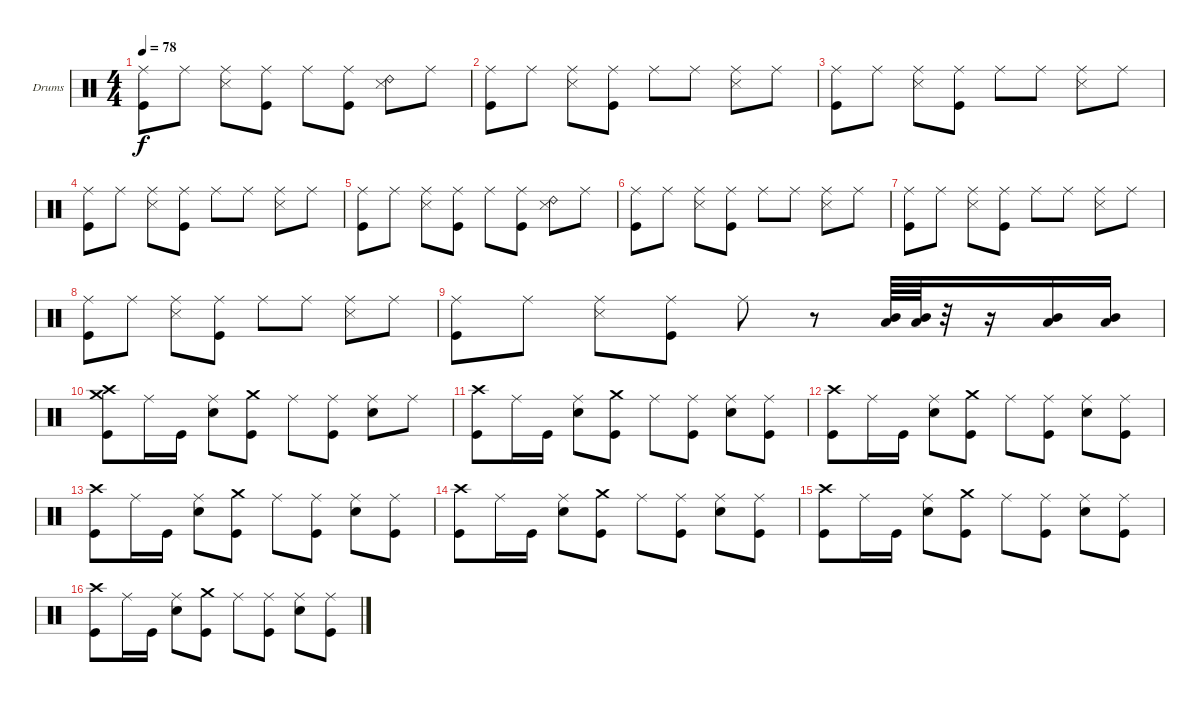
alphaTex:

\defaultSystemsLayout 4
\bracketExtendMode nobrackets
\firstSystemTrackNameOrientation horizontal
\otherSystemsTrackNameOrientation horizontal
\track ("Dave Krusen" "Drums") {instrument percussion}
\staff {score}
\articulation defaults
\ts (4 4)
\tempo 78
\clef neutral
\ks c
("Ride (middle)" "Kick (hit)").8{dy f} "Ride (middle)".8 ("Ride (middle)" "Snare (side stick) 3").8 ("Ride (middle)" "Kick (hit)").8 "Ride (middle)".8 ("Ride (middle)" "Kick (hit)").8 ("Ride (bell) 2" "Snare (side stick) 3").8 "Ride (middle)".8 |
("Ride (middle)" "Kick (hit)").8 "Ride (middle)".8 ("Ride (middle)" "Snare (side stick) 3").8 ("Ride (middle)" "Kick (hit)").8 "Ride (middle)".8 "Ride (middle)".8 ("Ride (middle)" "Snare (side stick) 3").8 "Ride (middle)".8 |
("Ride (middle)" "Kick (hit)").8 "Ride (middle)".8 ("Ride (middle)" "Snare (side stick) 3").8 ("Ride (middle)" "Kick (hit)").8 "Ride (middle)".8 "Ride (middle)".8 ("Ride (middle)" "Snare (side stick) 3").8 "Ride (middle)".8 |
("Ride (middle)" "Kick (hit)").8 "Ride (middle)".8 ("Ride (middle)" "Snare (side stick) 3").8 ("Ride (middle)" "Kick (hit)").8 "Ride (middle)".8 "Ride (middle)".8 ("Ride (middle)" "Snare (side stick) 3").8 "Ride (middle)".8 |
("Ride (middle)" "Kick (hit)").8 "Ride (middle)".8 ("Ride (middle)" "Snare (side stick) 3").8 ("Ride (middle)" "Kick (hit)").8 "Ride (middle)".8 ("Ride (middle)" "Kick (hit)").8 ("Ride (bell) 2" "Snare (side stick) 3").8 "Ride (middle)".8 |
("Ride (middle)" "Kick (hit)").8 "Ride (middle)".8 ("Ride (middle)" "Snare (side stick) 3").8 ("Ride (middle)" "Kick (hit)").8 "Ride (middle)".8 "Ride (middle)".8 ("Ride (middle)" "Snare (side stick) 3").8 "Ride (middle)".8 |
("Ride (middle)" "Kick (hit)").8 "Ride (middle)".8 ("Ride (middle)" "Snare (side stick) 3").8 ("Ride (middle)" "Kick (hit)").8 "Ride (middle)".8 "Ride (middle)".8 ("Ride (middle)" "Snare (side stick) 3").8 "Ride (middle)".8 |
("Ride (middle)" "Kick (hit)").8 "Ride (middle)".8 ("Ride (middle)" "Snare (side stick) 3").8 ("Ride (middle)" "Kick (hit)").8 "Ride (middle)".8 "Ride (middle)".8 ("Ride (middle)" "Snare (side stick) 3").8 "Ride (middle)".8 |
("Ride (middle)" "Kick (hit)").8 "Ride (middle)".8 ("Ride (middle)" "Snare (side stick) 3").8 ("Ride (middle)" "Kick (hit)").8 "Ride (middle)".8 r.8 ("Mid Tom (hit)" "Low Tom (hit)").64 ("Mid Tom (hit)" "Low Tom (hit)").64 r.32 r.16 ("Mid Tom (hit)" "Low Tom (hit)").16 ("Mid Tom (hit)" "Low Tom (hit)").16 |
("Crash high (hit)" "Crash medium (hit)" "Kick (hit)").8 "Ride (middle)".16 "Kick (hit)".16 ("Ride (middle)" "Snare (hit) 2").8 ("Crash medium (hit)" "Kick (hit)").8 "Ride (middle)".8 ("Ride (middle)" "Kick (hit)").8 ("Ride (middle)" "Snare (hit) 2").8 "Ride (middle)".8 |
("Crash high (hit)" "Kick (hit)").8 "Ride (middle)".16 "Kick (hit)".16 ("Ride (middle)" "Snare (hit) 2").8 ("Crash medium (hit)" "Kick (hit)").8 "Ride (middle)".8 ("Ride (middle)" "Kick (hit)").8 ("Ride (middle)" "Snare (hit) 2").8 ("Ride (middle)" "Kick (hit)").8 |
("Crash high (hit)" "Kick (hit)").8 "Ride (middle)".16 "Kick (hit)".16 ("Ride (middle)" "Snare (hit) 2").8 ("Crash medium (hit)" "Kick (hit)").8 "Ride (middle)".8 ("Ride (middle)" "Kick (hit)").8 ("Ride (middle)" "Snare (hit) 2").8 ("Ride (middle)" "Kick (hit)").8 |
("Crash high (hit)" "Kick (hit)").8 "Ride (middle)".16 "Kick (hit)".16 ("Ride (middle)" "Snare (hit) 2").8 ("Crash medium (hit)" "Kick (hit)").8 "Ride (middle)".8 ("Ride (middle)" "Kick (hit)").8 ("Ride (middle)" "Snare (hit) 2").8 ("Ride (middle)" "Kick (hit)").8 |
("Crash high (hit)" "Kick (hit)").8 "Ride (middle)".16 "Kick (hit)".16 ("Ride (middle)" "Snare (hit) 2").8 ("Crash medium (hit)" "Kick (hit)").8 "Ride (middle)".8 ("Ride (middle)" "Kick (hit)").8 ("Ride (middle)" "Snare (hit) 2").8 ("Ride (middle)" "Kick (hit)").8 |
("Crash high (hit)" "Kick (hit)").8 "Ride (middle)".16 "Kick (hit)".16 ("Ride (middle)" "Snare (hit) 2").8 ("Crash medium (hit)" "Kick (hit)").8 "Ride (middle)".8 ("Ride (middle)" "Kick (hit)").8 ("Ride (middle)" "Snare (hit) 2").8 ("Ride (middle)" "Kick (hit)").8 |
("Crash high (hit)" "Kick (hit)").8 "Ride (middle)".16 "Kick (hit)".16 ("Ride (middle)" "Snare (hit) 2").8 ("Crash medium (hit)" "Kick (hit)").8 "Ride (middle)".8 ("Ride (middle)" "Kick (hit)").8 ("Ride (middle)" "Snare (hit) 2").8 ("Ride (middle)" "Kick (hit)").8
